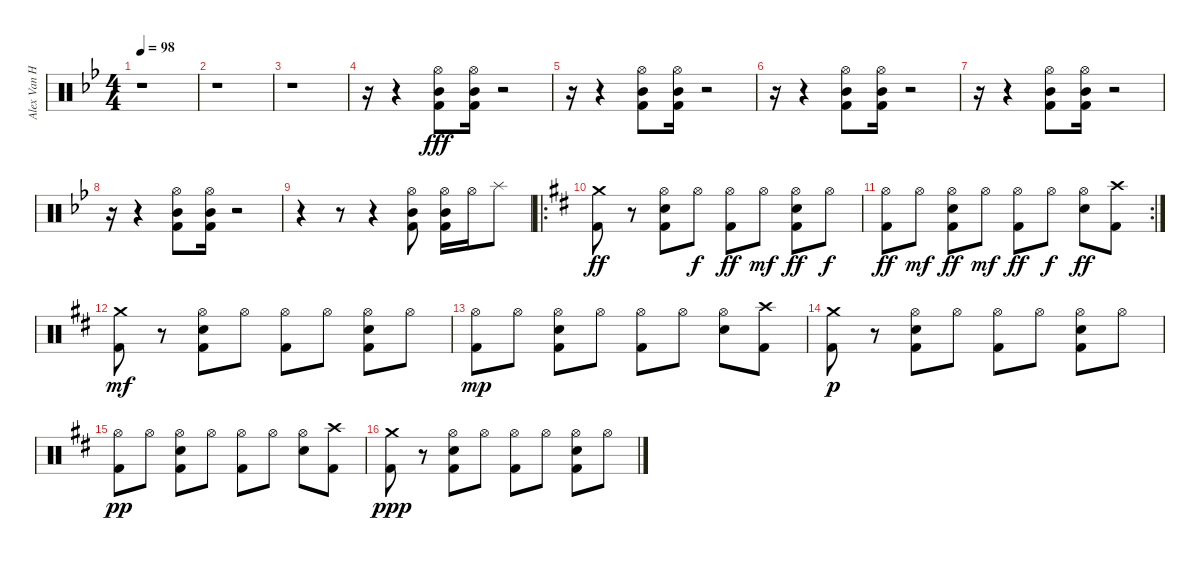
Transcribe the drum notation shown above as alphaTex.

\track ("Alex Van Halen" "Alex Van H") {instrument percussion}
\staff {score}
\articulation defaults
\ts (4 4)
\tempo 98
\clef neutral
\ks gminor
r.1{dy f} |
r.1 |
r.1 |
r.16 r.4 ("Hi-Hat (open)" "Kick (hit) 2" "Mid Tom (hit)").8{dy fff} ("Hi-Hat (open)" "Kick (hit) 2" "Mid Tom (hit)").16 r.2 |
r.16 r.4 ("Hi-Hat (open)" "Kick (hit) 2" "Mid Tom (hit)").8 ("Hi-Hat (open)" "Kick (hit) 2" "Mid Tom (hit)").16 r.2 |
r.16 r.4 ("Hi-Hat (open)" "Kick (hit) 2" "Mid Tom (hit)").8 ("Hi-Hat (open)" "Kick (hit) 2" "Mid Tom (hit)").16 r.2 |
r.16 r.4 ("Hi-Hat (open)" "Kick (hit) 2" "Mid Tom (hit)").8 ("Hi-Hat (open)" "Kick (hit) 2" "Mid Tom (hit)").16 r.2 |
r.16 r.4 ("Hi-Hat (open)" "Kick (hit) 2" "Mid Tom (hit)").8 ("Hi-Hat (open)" "Kick (hit) 2" "Mid Tom (hit)").16 r.2 |
r.4 r.8 r.4 ("Hi-Hat (open)" "Kick (hit) 2" "Mid Tom (hit)").8 ("Hi-Hat (open)" "Kick (hit) 2" "Mid Tom (hit)").16 "Hi-Hat (open)".16 "Splash (hit)".8 |
\ro
\ks bminor
("Kick (hit) 2" "Crash medium (hit)").8{dy ff} r.8 ("Hi-Hat (open)" "Kick (hit) 2" "Electric Snare (hit)").8 "Hi-Hat (open)".8{dy f} ("Kick (hit) 2" "Hi-Hat (open)").8{dy ff} "Hi-Hat (open)".8{dy mf} ("Kick (hit) 2" "Hi-Hat (open)" "Electric Snare (hit)").8{dy ff} "Hi-Hat (open)".8{dy f} |
\rc 2
("Kick (hit) 2" "Hi-Hat (open)").8{dy ff} "Hi-Hat (open)".8{dy mf} ("Hi-Hat (open)" "Kick (hit) 2" "Electric Snare (hit)").8{dy ff} "Hi-Hat (open)".8{dy mf} ("Hi-Hat (open)" "Kick (hit) 2").8{dy ff} "Hi-Hat (open)".8{dy f} ("Hi-Hat (open)" "Electric Snare (hit)").8{dy ff} ("Crash high (hit)" "Kick (hit) 2").8 |
("Kick (hit) 2" "Crash medium (hit)").8{dy mf} r.8 ("Hi-Hat (open)" "Kick (hit) 2" "Electric Snare (hit)").8 "Hi-Hat (open)".8 ("Kick (hit) 2" "Hi-Hat (open)").8 "Hi-Hat (open)".8 ("Kick (hit) 2" "Hi-Hat (open)" "Electric Snare (hit)").8 "Hi-Hat (open)".8 |
("Kick (hit) 2" "Hi-Hat (open)").8{dy mp} "Hi-Hat (open)".8 ("Hi-Hat (open)" "Kick (hit) 2" "Electric Snare (hit)").8 "Hi-Hat (open)".8 ("Hi-Hat (open)" "Kick (hit) 2").8 "Hi-Hat (open)".8 ("Hi-Hat (open)" "Electric Snare (hit)").8 ("Crash high (hit)" "Kick (hit) 2").8 |
("Kick (hit) 2" "Crash medium (hit)").8{dy p} r.8 ("Hi-Hat (open)" "Kick (hit) 2" "Electric Snare (hit)").8 "Hi-Hat (open)".8 ("Kick (hit) 2" "Hi-Hat (open)").8 "Hi-Hat (open)".8 ("Kick (hit) 2" "Hi-Hat (open)" "Electric Snare (hit)").8 "Hi-Hat (open)".8 |
("Kick (hit) 2" "Hi-Hat (open)").8{dy pp} "Hi-Hat (open)".8 ("Hi-Hat (open)" "Kick (hit) 2" "Electric Snare (hit)").8 "Hi-Hat (open)".8 ("Hi-Hat (open)" "Kick (hit) 2").8 "Hi-Hat (open)".8 ("Hi-Hat (open)" "Electric Snare (hit)").8 ("Crash high (hit)" "Kick (hit) 2").8 |
("Kick (hit) 2" "Crash medium (hit)").8{dy ppp} r.8 ("Hi-Hat (open)" "Kick (hit) 2" "Electric Snare (hit)").8 "Hi-Hat (open)".8 ("Kick (hit) 2" "Hi-Hat (open)").8 "Hi-Hat (open)".8 ("Kick (hit) 2" "Hi-Hat (open)" "Electric Snare (hit)").8 "Hi-Hat (open)".8
